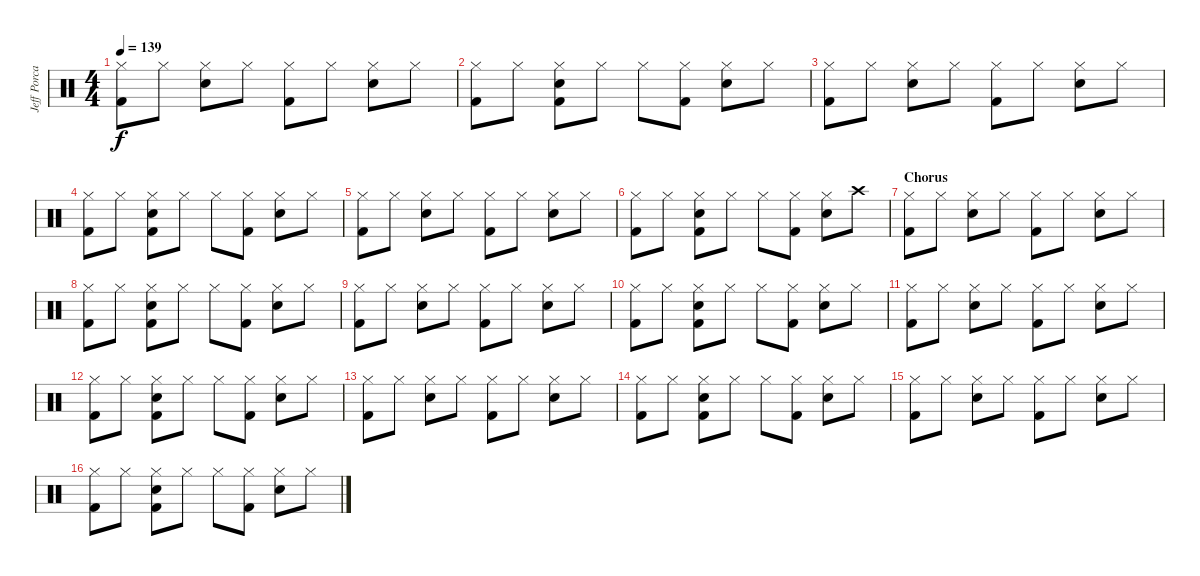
\track ("Jeff Porcaro (Percussion)" "Jeff Porca") {instrument percussion}
\staff {score}
\articulation defaults
\ts (4 4)
\tempo 139
\clef neutral
\ks c
("Hi-Hat (closed)" "Kick (hit) 2").8{dy f} "Hi-Hat (closed)".8 ("Hi-Hat (closed)" "Snare (hit) 2").8 "Hi-Hat (closed)".8 ("Hi-Hat (closed)" "Kick (hit) 2").8 "Hi-Hat (closed)".8 ("Hi-Hat (closed)" "Snare (hit) 2").8 "Hi-Hat (closed)".8 |
("Hi-Hat (closed)" "Kick (hit) 2").8 "Hi-Hat (closed)".8 ("Hi-Hat (closed)" "Snare (hit) 2" "Kick (hit) 2").8 "Hi-Hat (closed)".8 "Hi-Hat (closed)".8 ("Hi-Hat (closed)" "Kick (hit) 2").8 ("Hi-Hat (closed)" "Snare (hit) 2").8 "Hi-Hat (closed)".8 |
("Hi-Hat (closed)" "Kick (hit) 2").8 "Hi-Hat (closed)".8 ("Hi-Hat (closed)" "Snare (hit) 2").8 "Hi-Hat (closed)".8 ("Hi-Hat (closed)" "Kick (hit) 2").8 "Hi-Hat (closed)".8 ("Hi-Hat (closed)" "Snare (hit) 2").8 "Hi-Hat (closed)".8 |
("Hi-Hat (closed)" "Kick (hit) 2").8 "Hi-Hat (closed)".8 ("Hi-Hat (closed)" "Snare (hit) 2" "Kick (hit) 2").8 "Hi-Hat (closed)".8 "Hi-Hat (closed)".8 ("Hi-Hat (closed)" "Kick (hit) 2").8 ("Hi-Hat (closed)" "Snare (hit) 2").8 "Hi-Hat (closed)".8 |
("Hi-Hat (closed)" "Kick (hit) 2").8 "Hi-Hat (closed)".8 ("Hi-Hat (closed)" "Snare (hit) 2").8 "Hi-Hat (closed)".8 ("Hi-Hat (closed)" "Kick (hit) 2").8 "Hi-Hat (closed)".8 ("Hi-Hat (closed)" "Snare (hit) 2").8 "Hi-Hat (closed)".8 |
("Hi-Hat (closed)" "Kick (hit) 2").8 "Hi-Hat (closed)".8 ("Hi-Hat (closed)" "Snare (hit) 2" "Kick (hit) 2").8 "Hi-Hat (closed)".8 "Hi-Hat (closed)".8 ("Hi-Hat (closed)" "Kick (hit) 2").8 ("Hi-Hat (closed)" "Snare (hit) 2").8 "Crash high (hit)".8 |
\section ("" "Chorus")
("Hi-Hat (closed)" "Kick (hit) 2").8 "Hi-Hat (closed)".8 ("Hi-Hat (closed)" "Snare (hit) 2").8 "Hi-Hat (closed)".8 ("Hi-Hat (closed)" "Kick (hit) 2").8 "Hi-Hat (closed)".8 ("Hi-Hat (closed)" "Snare (hit) 2").8 "Hi-Hat (closed)".8 |
("Hi-Hat (closed)" "Kick (hit) 2").8 "Hi-Hat (closed)".8 ("Hi-Hat (closed)" "Snare (hit) 2" "Kick (hit) 2").8 "Hi-Hat (closed)".8 "Hi-Hat (closed)".8 ("Hi-Hat (closed)" "Kick (hit) 2").8 ("Hi-Hat (closed)" "Snare (hit) 2").8 "Hi-Hat (closed)".8 |
("Hi-Hat (closed)" "Kick (hit) 2").8 "Hi-Hat (closed)".8 ("Hi-Hat (closed)" "Snare (hit) 2").8 "Hi-Hat (closed)".8 ("Hi-Hat (closed)" "Kick (hit) 2").8 "Hi-Hat (closed)".8 ("Hi-Hat (closed)" "Snare (hit) 2").8 "Hi-Hat (closed)".8 |
("Hi-Hat (closed)" "Kick (hit) 2").8 "Hi-Hat (closed)".8 ("Hi-Hat (closed)" "Snare (hit) 2" "Kick (hit) 2").8 "Hi-Hat (closed)".8 "Hi-Hat (closed)".8 ("Hi-Hat (closed)" "Kick (hit) 2").8 ("Hi-Hat (closed)" "Snare (hit) 2").8 "Hi-Hat (closed)".8 |
("Hi-Hat (closed)" "Kick (hit) 2").8 "Hi-Hat (closed)".8 ("Hi-Hat (closed)" "Snare (hit) 2").8 "Hi-Hat (closed)".8 ("Hi-Hat (closed)" "Kick (hit) 2").8 "Hi-Hat (closed)".8 ("Hi-Hat (closed)" "Snare (hit) 2").8 "Hi-Hat (closed)".8 |
("Hi-Hat (closed)" "Kick (hit) 2").8 "Hi-Hat (closed)".8 ("Hi-Hat (closed)" "Snare (hit) 2" "Kick (hit) 2").8 "Hi-Hat (closed)".8 "Hi-Hat (closed)".8 ("Hi-Hat (closed)" "Kick (hit) 2").8 ("Hi-Hat (closed)" "Snare (hit) 2").8 "Hi-Hat (closed)".8 |
("Hi-Hat (closed)" "Kick (hit) 2").8 "Hi-Hat (closed)".8 ("Hi-Hat (closed)" "Snare (hit) 2").8 "Hi-Hat (closed)".8 ("Hi-Hat (closed)" "Kick (hit) 2").8 "Hi-Hat (closed)".8 ("Hi-Hat (closed)" "Snare (hit) 2").8 "Hi-Hat (closed)".8 |
("Hi-Hat (closed)" "Kick (hit) 2").8 "Hi-Hat (closed)".8 ("Hi-Hat (closed)" "Snare (hit) 2" "Kick (hit) 2").8 "Hi-Hat (closed)".8 "Hi-Hat (closed)".8 ("Hi-Hat (closed)" "Kick (hit) 2").8 ("Hi-Hat (closed)" "Snare (hit) 2").8 "Hi-Hat (closed)".8 |
("Hi-Hat (closed)" "Kick (hit) 2").8 "Hi-Hat (closed)".8 ("Hi-Hat (closed)" "Snare (hit) 2").8 "Hi-Hat (closed)".8 ("Hi-Hat (closed)" "Kick (hit) 2").8 "Hi-Hat (closed)".8 ("Hi-Hat (closed)" "Snare (hit) 2").8 "Hi-Hat (closed)".8 |
("Hi-Hat (closed)" "Kick (hit) 2").8 "Hi-Hat (closed)".8 ("Hi-Hat (closed)" "Snare (hit) 2" "Kick (hit) 2").8 "Hi-Hat (closed)".8 "Hi-Hat (closed)".8 ("Hi-Hat (closed)" "Kick (hit) 2").8 ("Hi-Hat (closed)" "Snare (hit) 2").8 "Hi-Hat (closed)".8
